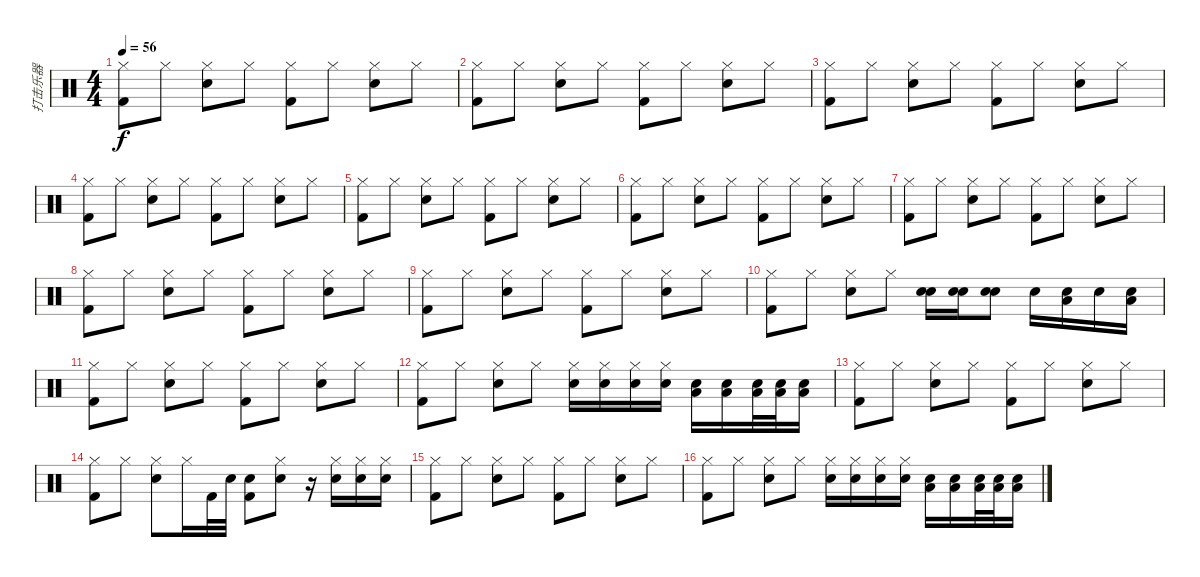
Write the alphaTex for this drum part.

\track ("打击乐器" "打击乐器") {instrument percussion}
\staff {score}
\articulation defaults
\ts (4 4)
\tempo 56
\clef neutral
\ks c
("Hi-Hat (closed)" "Kick (hit) 2").8{dy f} "Hi-Hat (closed)".8 ("Hi-Hat (closed)" "Snare (hit) 2").8 "Hi-Hat (closed)".8 ("Hi-Hat (closed)" "Kick (hit) 2").8 "Hi-Hat (closed)".8 ("Hi-Hat (closed)" "Snare (hit) 2").8 "Hi-Hat (closed)".8 |
("Hi-Hat (closed)" "Kick (hit) 2").8 "Hi-Hat (closed)".8 ("Hi-Hat (closed)" "Snare (hit) 2").8 "Hi-Hat (closed)".8 ("Hi-Hat (closed)" "Kick (hit) 2").8 "Hi-Hat (closed)".8 ("Hi-Hat (closed)" "Snare (hit) 2").8 "Hi-Hat (closed)".8 |
("Hi-Hat (closed)" "Kick (hit) 2").8 "Hi-Hat (closed)".8 ("Hi-Hat (closed)" "Snare (hit) 2").8 "Hi-Hat (closed)".8 ("Hi-Hat (closed)" "Kick (hit) 2").8 "Hi-Hat (closed)".8 ("Hi-Hat (closed)" "Snare (hit) 2").8 "Hi-Hat (closed)".8 |
("Hi-Hat (closed)" "Kick (hit) 2").8 "Hi-Hat (closed)".8 ("Hi-Hat (closed)" "Snare (hit) 2").8 "Hi-Hat (closed)".8 ("Hi-Hat (closed)" "Kick (hit) 2").8 "Hi-Hat (closed)".8 ("Hi-Hat (closed)" "Snare (hit) 2").8 "Hi-Hat (closed)".8 |
("Hi-Hat (closed)" "Kick (hit) 2").8 "Hi-Hat (closed)".8 ("Hi-Hat (closed)" "Snare (hit) 2").8 "Hi-Hat (closed)".8 ("Hi-Hat (closed)" "Kick (hit) 2").8 "Hi-Hat (closed)".8 ("Hi-Hat (closed)" "Snare (hit) 2").8 "Hi-Hat (closed)".8 |
("Hi-Hat (closed)" "Kick (hit) 2").8 "Hi-Hat (closed)".8 ("Hi-Hat (closed)" "Snare (hit) 2").8 "Hi-Hat (closed)".8 ("Hi-Hat (closed)" "Kick (hit) 2").8 "Hi-Hat (closed)".8 ("Hi-Hat (closed)" "Snare (hit) 2").8 "Hi-Hat (closed)".8 |
("Hi-Hat (closed)" "Kick (hit) 2").8 "Hi-Hat (closed)".8 ("Hi-Hat (closed)" "Snare (hit) 2").8 "Hi-Hat (closed)".8 ("Hi-Hat (closed)" "Kick (hit) 2").8 "Hi-Hat (closed)".8 ("Hi-Hat (closed)" "Snare (hit) 2").8 "Hi-Hat (closed)".8 |
("Hi-Hat (closed)" "Kick (hit) 2").8 "Hi-Hat (closed)".8 ("Hi-Hat (closed)" "Snare (hit) 2").8 "Hi-Hat (closed)".8 ("Hi-Hat (closed)" "Kick (hit) 2").8 "Hi-Hat (closed)".8 ("Hi-Hat (closed)" "Snare (hit) 2").8 "Hi-Hat (closed)".8 |
("Hi-Hat (closed)" "Kick (hit) 2").8 "Hi-Hat (closed)".8 ("Hi-Hat (closed)" "Snare (hit) 2").8 "Hi-Hat (closed)".8 ("Hi-Hat (closed)" "Kick (hit) 2").8 "Hi-Hat (closed)".8 ("Hi-Hat (closed)" "Snare (hit) 2").8 "Hi-Hat (closed)".8 |
("Hi-Hat (closed)" "Kick (hit) 2").8 "Hi-Hat (closed)".8 ("Hi-Hat (closed)" "Snare (hit) 2").8 "Hi-Hat (closed)".8 ("Electric Snare (hit)" "Snare (hit) 2").16 ("Electric Snare (hit)" "Snare (hit) 2").16 ("Electric Snare (hit)" "Snare (hit) 2").8 "Snare (hit) 2".16 ("Snare (hit) 2" "Low Tom (hit)").16 "Snare (hit) 2".16 ("Snare (hit) 2" "Low Tom (hit)").16 |
("Hi-Hat (closed)" "Kick (hit) 2").8 "Hi-Hat (closed)".8 ("Hi-Hat (closed)" "Snare (hit) 2").8 "Hi-Hat (closed)".8 ("Hi-Hat (closed)" "Kick (hit) 2").8 "Hi-Hat (closed)".8 ("Hi-Hat (closed)" "Snare (hit) 2").8 "Hi-Hat (closed)".8 |
("Hi-Hat (closed)" "Kick (hit) 2").8 "Hi-Hat (closed)".8 ("Hi-Hat (closed)" "Snare (hit) 2").8 "Hi-Hat (closed)".8 ("Snare (hit) 2" "Hi-Hat (closed)").16 ("Snare (hit) 2" "Hi-Hat (closed)").16 ("Snare (hit) 2" "Hi-Hat (closed)").16 ("Snare (hit) 2" "Hi-Hat (closed)").16 ("Snare (hit) 2" "Low Tom (hit)").16 ("Snare (hit) 2" "Low Tom (hit)").16 ("Snare (hit) 2" "Low Tom (hit)").32 ("Snare (hit) 2" "Low Tom (hit)").32 ("Snare (hit) 2" "Low Tom (hit)").16 |
("Hi-Hat (closed)" "Kick (hit) 2").8 "Hi-Hat (closed)".8 ("Hi-Hat (closed)" "Snare (hit) 2").8 "Hi-Hat (closed)".8 ("Hi-Hat (closed)" "Kick (hit) 2").8 "Hi-Hat (closed)".8 ("Hi-Hat (closed)" "Snare (hit) 2").8 "Hi-Hat (closed)".8 |
("Hi-Hat (closed)" "Kick (hit) 2").8 "Hi-Hat (closed)".8 ("Hi-Hat (closed)" "Snare (hit) 2").8 "Hi-Hat (closed)".16 "Kick (hit) 2".32 "Snare (hit) 2".32 ("Snare (hit) 2" "Kick (hit) 2").8 ("Hi-Hat (closed)" "Snare (hit) 2").8 r.16 ("Snare (hit) 2" "Hi-Hat (closed)").16 ("Snare (hit) 2" "Hi-Hat (closed)").16 ("Snare (hit) 2" "Hi-Hat (closed)").16 |
("Hi-Hat (closed)" "Kick (hit) 2").8 "Hi-Hat (closed)".8 ("Hi-Hat (closed)" "Snare (hit) 2").8 "Hi-Hat (closed)".8 ("Hi-Hat (closed)" "Kick (hit) 2").8 "Hi-Hat (closed)".8 ("Hi-Hat (closed)" "Snare (hit) 2").8 "Hi-Hat (closed)".8 |
("Hi-Hat (closed)" "Kick (hit) 2").8 "Hi-Hat (closed)".8 ("Hi-Hat (closed)" "Snare (hit) 2").8 "Hi-Hat (closed)".8 ("Snare (hit) 2" "Hi-Hat (closed)").16 ("Snare (hit) 2" "Hi-Hat (closed)").16 ("Snare (hit) 2" "Hi-Hat (closed)").16 ("Snare (hit) 2" "Hi-Hat (closed)").16 ("Snare (hit) 2" "Low Tom (hit)").16 ("Snare (hit) 2" "Low Tom (hit)").16 ("Snare (hit) 2" "Low Tom (hit)").32 ("Snare (hit) 2" "Low Tom (hit)").32 ("Snare (hit) 2" "Low Tom (hit)").16
